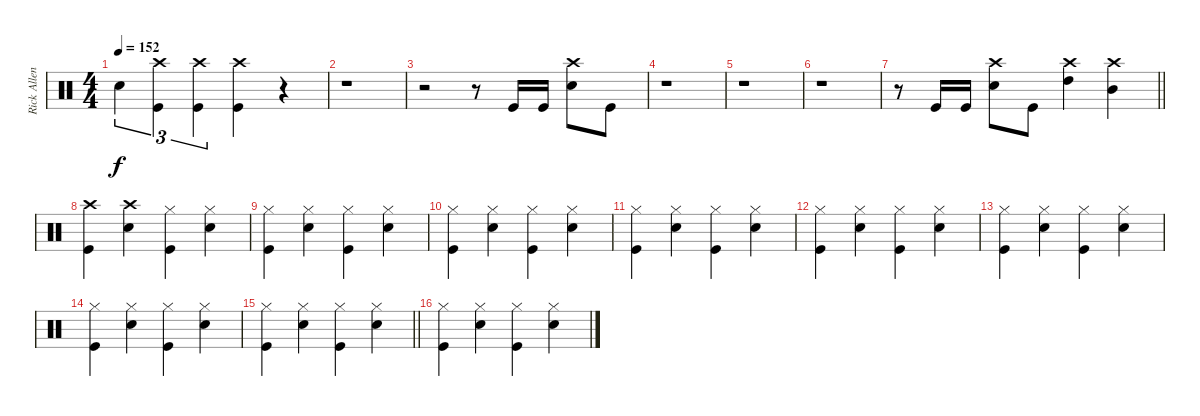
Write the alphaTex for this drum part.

\track ("Rick Allen" "Rick Allen") {instrument percussion}
\staff {score}
\articulation defaults
\ts (4 4)
\tempo 152
\clef neutral
\ks aminor "Snare (hit) 2".4{tu (3 2) dy f}
("Crash high (hit)" "Kick (hit)").4{tu (3 2)} ("Crash high (hit)" "Kick (hit)").4{tu (3 2)} ("Crash high (hit)" "Kick (hit)").4 r.4 |
r.1 |
r.2 r.8 "Kick (hit)".16 "Kick (hit)".16 ("Crash high (hit)" "Snare (hit) 2").8 "Kick (hit)".8 |
r.1 |
r.1 |
r.1 |
\barLineRight lightlight
r.8 "Kick (hit)".16 "Kick (hit)".16 ("Crash high (hit)" "Snare (hit) 2").8 "Kick (hit)".8 ("Crash high (hit)" "High Tom (hit)").4 ("Crash high (hit)" "Mid Tom (hit)").4 |
("Crash high (hit)" "Kick (hit)").4 ("Crash high (hit)" "Snare (hit) 2").4 ("Hi-Hat (closed)" "Kick (hit)").4 ("Hi-Hat (closed)" "Snare (hit) 2").4 |
("Hi-Hat (closed)" "Kick (hit)").4 ("Hi-Hat (closed)" "Snare (hit) 2").4 ("Hi-Hat (closed)" "Kick (hit)").4 ("Hi-Hat (closed)" "Snare (hit) 2").4 |
("Hi-Hat (closed)" "Kick (hit)").4 ("Hi-Hat (closed)" "Snare (hit) 2").4 ("Hi-Hat (closed)" "Kick (hit)").4 ("Hi-Hat (closed)" "Snare (hit) 2").4 |
("Hi-Hat (closed)" "Kick (hit)").4 ("Hi-Hat (closed)" "Snare (hit) 2").4 ("Hi-Hat (closed)" "Kick (hit)").4 ("Hi-Hat (closed)" "Snare (hit) 2").4 |
("Hi-Hat (closed)" "Kick (hit)").4 ("Hi-Hat (closed)" "Snare (hit) 2").4 ("Hi-Hat (closed)" "Kick (hit)").4 ("Hi-Hat (closed)" "Snare (hit) 2").4 |
("Hi-Hat (closed)" "Kick (hit)").4 ("Hi-Hat (closed)" "Snare (hit) 2").4 ("Hi-Hat (closed)" "Kick (hit)").4 ("Hi-Hat (closed)" "Snare (hit) 2").4 |
("Hi-Hat (closed)" "Kick (hit)").4 ("Hi-Hat (closed)" "Snare (hit) 2").4 ("Hi-Hat (closed)" "Kick (hit)").4 ("Hi-Hat (closed)" "Snare (hit) 2").4 |
\barLineRight lightlight
("Hi-Hat (closed)" "Kick (hit)").4 ("Hi-Hat (closed)" "Snare (hit) 2").4 ("Hi-Hat (closed)" "Kick (hit)").4 ("Hi-Hat (closed)" "Snare (hit) 2").4 |
("Hi-Hat (closed)" "Kick (hit)").4 ("Hi-Hat (closed)" "Snare (hit) 2").4 ("Hi-Hat (closed)" "Kick (hit)").4 ("Hi-Hat (closed)" "Snare (hit) 2").4
